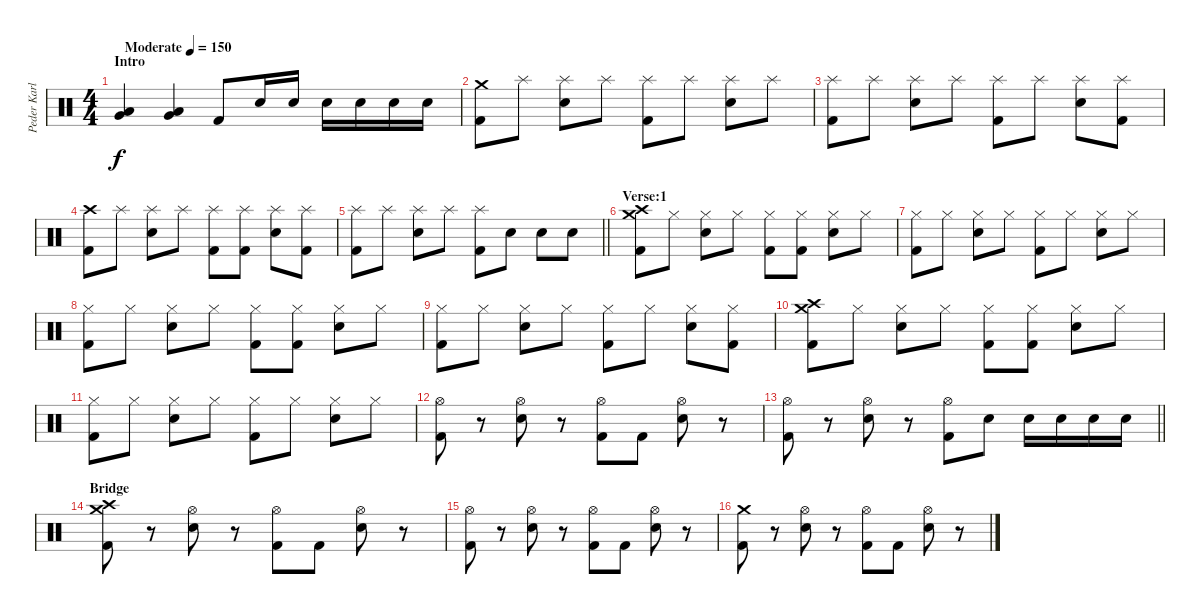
\track ("Peder Karlsson" "Peder Karl") {instrument percussion}
\staff {score}
\articulation defaults
\ts (4 4)
\section ("" "Intro")
\tempo (150 "Moderate")
\clef neutral
\ks c
("Low Tom (hit)" "Very Low Tom (hit)").4{dy f} ("Low Tom (hit)" "Very Low Tom (hit)").4 "Kick (hit) 2".8 "Snare (hit) 2".16 "Snare (hit) 2".16 "Snare (hit) 2".16 "Snare (hit) 2".16 "Snare (hit) 2".16 "Snare (hit) 2".16 |
("Crash medium (hit)" "Kick (hit) 2").8 "Splash (hit)".8 ("Splash (hit)" "Snare (hit) 2").8 "Splash (hit)".8 ("Splash (hit)" "Kick (hit) 2").8 "Splash (hit)".8 ("Splash (hit)" "Snare (hit) 2").8 "Splash (hit)".8 |
("Splash (hit)" "Kick (hit) 2").8 "Splash (hit)".8 ("Splash (hit)" "Snare (hit) 2").8 "Splash (hit)".8 ("Splash (hit)" "Kick (hit) 2").8 "Splash (hit)".8 ("Splash (hit)" "Snare (hit) 2").8 ("Splash (hit)" "Kick (hit) 2").8 |
("Crash high (hit)" "Kick (hit) 2").8 "Splash (hit)".8 ("Splash (hit)" "Snare (hit) 2").8 "Splash (hit)".8 ("Splash (hit)" "Kick (hit) 2").8 ("Splash (hit)" "Kick (hit) 2").8 ("Splash (hit)" "Snare (hit) 2").8 ("Splash (hit)" "Kick (hit) 2").8 |
\barLineRight lightlight
("Splash (hit)" "Kick (hit) 2").8 "Splash (hit)".8 ("Splash (hit)" "Snare (hit) 2").8 "Splash (hit)".8 ("Splash (hit)" "Kick (hit) 2").8 "Snare (hit) 2".8 "Snare (hit) 2".8 "Snare (hit) 2".8 |
\section ("" "Verse:1")
("Crash medium (hit)" "Crash high (hit)" "Kick (hit) 2").8 "Hi-Hat (closed)".8 ("Hi-Hat (closed)" "Snare (hit) 2").8 "Hi-Hat (closed)".8 ("Hi-Hat (closed)" "Kick (hit) 2").8 ("Hi-Hat (closed)" "Kick (hit) 2").8 ("Hi-Hat (closed)" "Snare (hit) 2").8 "Hi-Hat (closed)".8 |
("Hi-Hat (closed)" "Kick (hit) 2").8 "Hi-Hat (closed)".8 ("Hi-Hat (closed)" "Snare (hit) 2").8 "Hi-Hat (closed)".8 ("Hi-Hat (closed)" "Kick (hit) 2").8 "Hi-Hat (closed)".8 ("Hi-Hat (closed)" "Snare (hit) 2").8 "Hi-Hat (closed)".8 |
("Hi-Hat (closed)" "Kick (hit) 2").8 "Hi-Hat (closed)".8 ("Hi-Hat (closed)" "Snare (hit) 2").8 "Hi-Hat (closed)".8 ("Hi-Hat (closed)" "Kick (hit) 2").8 ("Hi-Hat (closed)" "Kick (hit) 2").8 ("Hi-Hat (closed)" "Snare (hit) 2").8 "Hi-Hat (closed)".8 |
("Hi-Hat (closed)" "Kick (hit) 2").8 "Hi-Hat (closed)".8 ("Hi-Hat (closed)" "Snare (hit) 2").8 "Hi-Hat (closed)".8 ("Hi-Hat (closed)" "Kick (hit) 2").8 "Hi-Hat (closed)".8 ("Hi-Hat (closed)" "Snare (hit) 2").8 ("Hi-Hat (closed)" "Kick (hit) 2").8 |
("Crash medium (hit)" "Crash high (hit)" "Kick (hit) 2").8 "Hi-Hat (closed)".8 ("Hi-Hat (closed)" "Snare (hit) 2").8 "Hi-Hat (closed)".8 ("Hi-Hat (closed)" "Kick (hit) 2").8 ("Hi-Hat (closed)" "Kick (hit) 2").8 ("Hi-Hat (closed)" "Snare (hit) 2").8 "Hi-Hat (closed)".8 |
("Hi-Hat (closed)" "Kick (hit) 2").8 "Hi-Hat (closed)".8 ("Hi-Hat (closed)" "Snare (hit) 2").8 "Hi-Hat (closed)".8 ("Hi-Hat (closed)" "Kick (hit) 2").8 "Hi-Hat (closed)".8 ("Hi-Hat (closed)" "Snare (hit) 2").8 "Hi-Hat (closed)".8 |
("Hi-Hat (open)" "Kick (hit) 2").8 r.8 ("Hi-Hat (open)" "Snare (hit) 2").8 r.8 ("Hi-Hat (open)" "Kick (hit) 2").8 "Kick (hit) 2".8 ("Hi-Hat (open)" "Snare (hit) 2").8 r.8 |
\barLineRight lightlight
("Hi-Hat (open)" "Kick (hit) 2").8 r.8 ("Hi-Hat (open)" "Snare (hit) 2").8 r.8 ("Hi-Hat (open)" "Kick (hit) 2").8 "Snare (hit) 2".8 "Snare (hit) 2".16 "Snare (hit) 2".16 "Snare (hit) 2".16 "Snare (hit) 2".16 |
\section ("" "Bridge")
("Crash medium (hit)" "Crash high (hit)" "Kick (hit) 2").8 r.8 ("Hi-Hat (open)" "Snare (hit) 2").8 r.8 ("Hi-Hat (open)" "Kick (hit) 2").8 "Kick (hit) 2".8 ("Hi-Hat (open)" "Snare (hit) 2").8 r.8 |
("Hi-Hat (open)" "Kick (hit) 2").8 r.8 ("Hi-Hat (open)" "Snare (hit) 2").8 r.8 ("Hi-Hat (open)" "Kick (hit) 2").8 "Kick (hit) 2".8 ("Hi-Hat (open)" "Snare (hit) 2").8 r.8 |
("Crash medium (hit)" "Kick (hit) 2").8 r.8 ("Hi-Hat (open)" "Snare (hit) 2").8 r.8 ("Hi-Hat (open)" "Kick (hit) 2").8 "Kick (hit) 2".8 ("Hi-Hat (open)" "Snare (hit) 2").8 r.8
